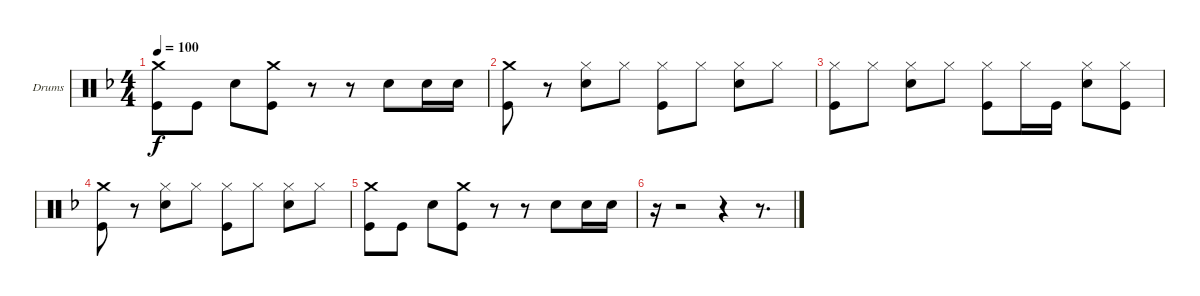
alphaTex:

\bracketExtendMode groupsimilarinstruments
\firstSystemTrackNameOrientation horizontal
\otherSystemsTrackNameOrientation horizontal
\track ("Drums" "Drums") {instrument percussion}
\staff {score}
\articulation defaults
\ts (4 4)
\tempo 100
\clef neutral
\ks dminor
("Crash medium (hit)" "Kick (hit)").8{dy f} "Kick (hit)".8 "Snare (hit) 2".8 ("Crash medium (hit)" "Kick (hit)").8 r.8 r.8 "Snare (hit) 2".8 "Snare (hit) 2".16 "Snare (hit) 2".16 |
("Crash medium (hit)" "Kick (hit)").8 r.8 ("Hi-Hat (closed)" "Snare (hit) 2").8 "Hi-Hat (closed)".8 ("Hi-Hat (closed)" "Kick (hit)").8 "Hi-Hat (closed)".8 ("Hi-Hat (closed)" "Snare (hit) 2").8 "Hi-Hat (closed)".8 |
("Hi-Hat (closed)" "Kick (hit)").8 "Hi-Hat (closed)".8 ("Hi-Hat (closed)" "Snare (hit) 2").8 "Hi-Hat (closed)".8 ("Hi-Hat (closed)" "Kick (hit)").8 "Hi-Hat (closed)".16 "Kick (hit)".16 ("Hi-Hat (closed)" "Snare (hit) 2").8 ("Hi-Hat (closed)" "Kick (hit)").8 |
("Crash medium (hit)" "Kick (hit)").8 r.8 ("Hi-Hat (closed)" "Snare (hit) 2").8 "Hi-Hat (closed)".8 ("Hi-Hat (closed)" "Kick (hit)").8 "Hi-Hat (closed)".8 ("Hi-Hat (closed)" "Snare (hit) 2").8 "Hi-Hat (closed)".8 |
("Crash medium (hit)" "Kick (hit)").8 "Kick (hit)".8 "Snare (hit) 2".8 ("Crash medium (hit)" "Kick (hit)").8 r.8 r.8 "Snare (hit) 2".8 "Snare (hit) 2".16 "Snare (hit) 2".16 |
r.16 r.2 r.4 r.8{d}
